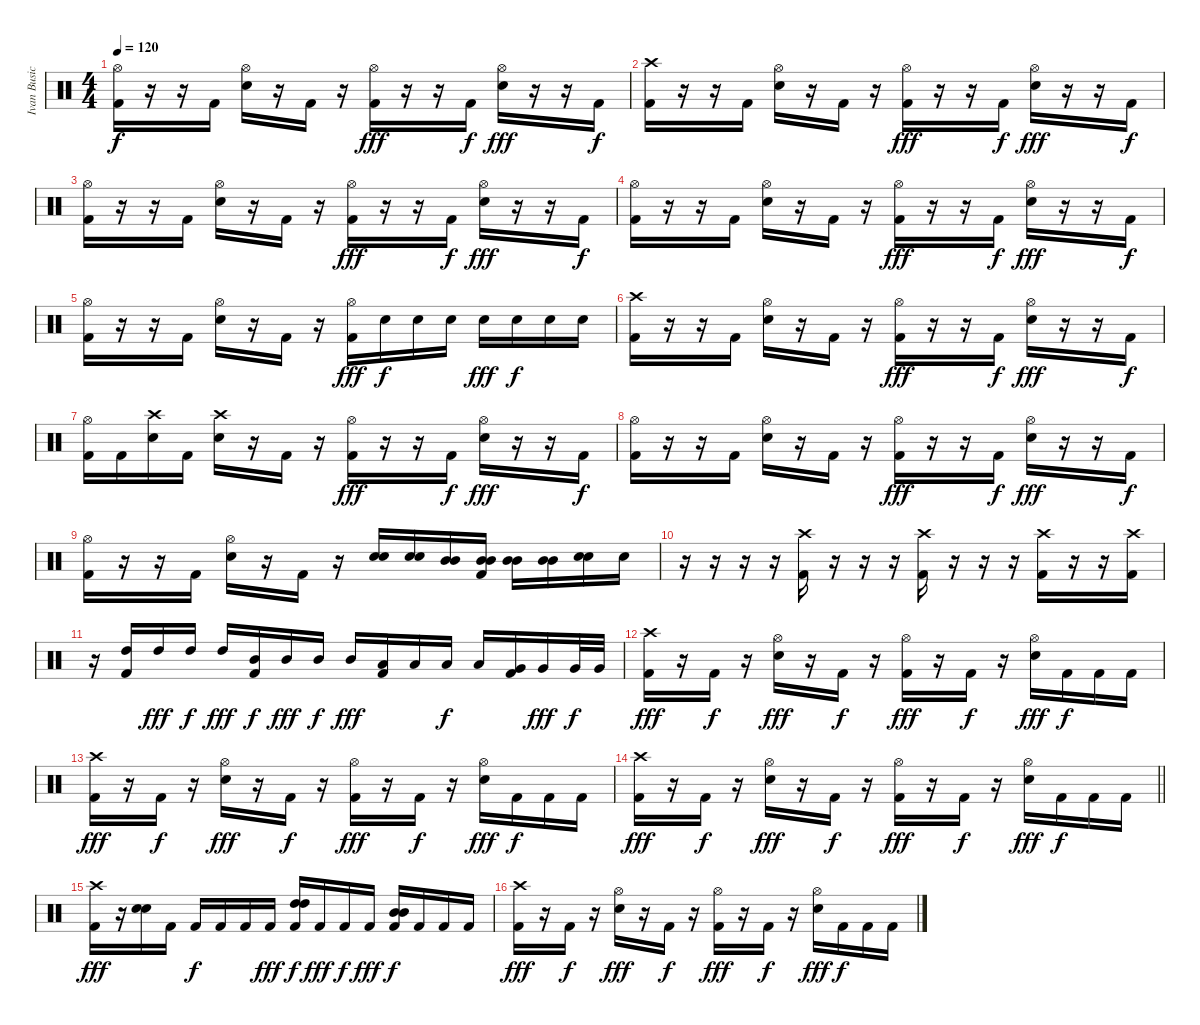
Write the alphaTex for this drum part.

\track ("Ivan Busic" "Ivan Busic") {instrument percussion}
\staff {score}
\articulation defaults
\ts (4 4)
\tempo 120
\clef neutral
\ks c
("Hi-Hat (open)" "Kick (hit) 2").16{dy f} r.16 r.16 "Kick (hit) 2".16 ("Hi-Hat (open)" "Electric Snare (hit)").16 r.16 "Kick (hit) 2".16 r.16 ("Hi-Hat (open)" "Kick (hit) 2").16{dy fff} r.16 r.16 "Kick (hit) 2".16{dy f} ("Hi-Hat (open)" "Electric Snare (hit)").16{dy fff} r.16 r.16 "Kick (hit) 2".16{dy f} |
("Crash high (hit)" "Kick (hit) 2").16 r.16 r.16 "Kick (hit) 2".16 ("Hi-Hat (open)" "Electric Snare (hit)").16 r.16 "Kick (hit) 2".16 r.16 ("Hi-Hat (open)" "Kick (hit) 2").16{dy fff} r.16 r.16 "Kick (hit) 2".16{dy f} ("Hi-Hat (open)" "Electric Snare (hit)").16{dy fff} r.16 r.16 "Kick (hit) 2".16{dy f} |
("Hi-Hat (open)" "Kick (hit) 2").16 r.16 r.16 "Kick (hit) 2".16 ("Hi-Hat (open)" "Electric Snare (hit)").16 r.16 "Kick (hit) 2".16 r.16 ("Hi-Hat (open)" "Kick (hit) 2").16{dy fff} r.16 r.16 "Kick (hit) 2".16{dy f} ("Hi-Hat (open)" "Electric Snare (hit)").16{dy fff} r.16 r.16 "Kick (hit) 2".16{dy f} |
("Hi-Hat (open)" "Kick (hit) 2").16 r.16 r.16 "Kick (hit) 2".16 ("Hi-Hat (open)" "Electric Snare (hit)").16 r.16 "Kick (hit) 2".16 r.16 ("Hi-Hat (open)" "Kick (hit) 2").16{dy fff} r.16 r.16 "Kick (hit) 2".16{dy f} ("Hi-Hat (open)" "Electric Snare (hit)").16{dy fff} r.16 r.16 "Kick (hit) 2".16{dy f} |
("Hi-Hat (open)" "Kick (hit) 2").16 r.16 r.16 "Kick (hit) 2".16 ("Hi-Hat (open)" "Electric Snare (hit)").16 r.16 "Kick (hit) 2".16 r.16 ("Hi-Hat (open)" "Kick (hit) 2").16{dy fff} "Electric Snare (hit)".16{dy f} "Electric Snare (hit)".16 "Electric Snare (hit)".16 "Electric Snare (hit)".16{dy fff} "Electric Snare (hit)".16{dy f} "Electric Snare (hit)".16 "Electric Snare (hit)".16 |
("Crash high (hit)" "Kick (hit) 2").16 r.16 r.16 "Kick (hit) 2".16 ("Hi-Hat (open)" "Electric Snare (hit)").16 r.16 "Kick (hit) 2".16 r.16 ("Hi-Hat (open)" "Kick (hit) 2").16{dy fff} r.16 r.16 "Kick (hit) 2".16{dy f} ("Hi-Hat (open)" "Electric Snare (hit)").16{dy fff} r.16 r.16 "Kick (hit) 2".16{dy f} |
("Hi-Hat (open)" "Kick (hit) 2").16 "Kick (hit) 2".16 ("Crash high (hit)" "Electric Snare (hit)").16 "Kick (hit) 2".16 ("Crash high (hit)" "Electric Snare (hit)").16 r.16 "Kick (hit) 2".16 r.16 ("Hi-Hat (open)" "Kick (hit) 2").16{dy fff} r.16 r.16 "Kick (hit) 2".16{dy f} ("Hi-Hat (open)" "Electric Snare (hit)").16{dy fff} r.16 r.16 "Kick (hit) 2".16{dy f} |
("Hi-Hat (open)" "Kick (hit) 2").16 r.16 r.16 "Kick (hit) 2".16 ("Hi-Hat (open)" "Electric Snare (hit)").16 r.16 "Kick (hit) 2".16 r.16 ("Hi-Hat (open)" "Kick (hit) 2").16{dy fff} r.16 r.16 "Kick (hit) 2".16{dy f} ("Hi-Hat (open)" "Electric Snare (hit)").16{dy fff} r.16 r.16 "Kick (hit) 2".16{dy f} |
("Hi-Hat (open)" "Kick (hit) 2").16 r.16 r.16 "Kick (hit) 2".16 ("Hi-Hat (open)" "Electric Snare (hit)").16 r.16 "Kick (hit) 2".16 r.16 ("Electric Snare (hit)" "Electric Snare (hit)").16 ("Electric Snare (hit)" "Electric Snare (hit)").16 ("Mid Tom (hit)" "Mid Tom (hit)").16 ("Mid Tom (hit)" "Mid Tom (hit)" "Kick (hit) 2").16 ("Mid Tom (hit)" "Mid Tom (hit)").16 ("Mid Tom (hit)" "Mid Tom (hit)").16 ("Electric Snare (hit)" "Electric Snare (hit)").16 "Snare (hit)".16 |
r.16 r.16 r.16 r.16 ("Crash high (hit)" "Kick (hit) 2").16 r.16 r.16 r.16 ("Crash high (hit)" "Kick (hit) 2").16 r.16 r.16 r.16 ("Crash high (hit)" "Kick (hit) 2").16 r.16 r.16 ("Crash high (hit)" "Kick (hit) 2").16 |
r.16 ("High Tom (hit)" "Kick (hit) 2").16 "High Tom (hit)".16{dy fff} "High Tom (hit)".16{dy f} "High Tom (hit)".16{dy fff} ("Mid Tom (hit)" "Kick (hit) 2").16{dy f} "Mid Tom (hit)".16{dy fff} "Mid Tom (hit)".16{dy f} "Mid Tom (hit)".16{dy fff} ("Low Tom (hit)" "Kick (hit) 2").16 "Low Tom (hit)".16 "Low Tom (hit)".16{dy f} "Low Tom (hit)".16 ("Very Low Tom (hit)" "Kick (hit) 2").16 "Very Low Tom (hit)".16{dy fff} "Very Low Tom (hit)".32{dy f} "Very Low Tom (hit)".32 |
("Crash high (hit)" "Kick (hit) 2").16{dy fff} r.16 "Kick (hit) 2".16{dy f} r.16 ("Hi-Hat (open)" "Electric Snare (hit)").16{dy fff} r.16 "Kick (hit) 2".16{dy f} r.16 ("Hi-Hat (open)" "Kick (hit) 2").16{dy fff} r.16 "Kick (hit) 2".16{dy f} r.16 ("Hi-Hat (open)" "Electric Snare (hit)").16{dy fff} "Kick (hit) 2".16{dy f} "Kick (hit) 2".16 "Kick (hit) 2".16 |
("Crash high (hit)" "Kick (hit) 2").16{dy fff} r.16 "Kick (hit) 2".16{dy f} r.16 ("Hi-Hat (open)" "Electric Snare (hit)").16{dy fff} r.16 "Kick (hit) 2".16{dy f} r.16 ("Hi-Hat (open)" "Kick (hit) 2").16{dy fff} r.16 "Kick (hit) 2".16{dy f} r.16 ("Hi-Hat (open)" "Electric Snare (hit)").16{dy fff} "Kick (hit) 2".16{dy f} "Kick (hit) 2".16 "Kick (hit) 2".16 |
\barLineRight lightlight
("Crash high (hit)" "Kick (hit) 2").16{dy fff} r.16 "Kick (hit) 2".16{dy f} r.16 ("Hi-Hat (open)" "Electric Snare (hit)").16{dy fff} r.16 "Kick (hit) 2".16{dy f} r.16 ("Hi-Hat (open)" "Kick (hit) 2").16{dy fff} r.16 "Kick (hit) 2".16{dy f} r.16 ("Hi-Hat (open)" "Electric Snare (hit)").16{dy fff} "Kick (hit) 2".16{dy f} "Kick (hit) 2".16 "Kick (hit) 2".16 |
("Crash high (hit)" "Kick (hit) 2").16{dy fff} r.16 ("Electric Snare (hit)" "Electric Snare (hit)").16 "Kick (hit) 2".16 "Kick (hit) 2".16{dy f} "Kick (hit) 2".16 "Kick (hit) 2".16 "Kick (hit) 2".16{dy fff} ("High Tom (hit)" "High Tom (hit)" "Kick (hit) 2").16{dy f} "Kick (hit) 2".16{dy fff} "Kick (hit) 2".16{dy f} "Kick (hit) 2".16{dy fff} ("Mid Tom (hit)" "Mid Tom (hit)" "Kick (hit) 2").16{dy f} "Kick (hit) 2".16 "Kick (hit) 2".16 "Kick (hit) 2".16 |
("Crash high (hit)" "Kick (hit) 2").16{dy fff} r.16 "Kick (hit) 2".16{dy f} r.16 ("Hi-Hat (open)" "Electric Snare (hit)").16{dy fff} r.16 "Kick (hit) 2".16{dy f} r.16 ("Hi-Hat (open)" "Kick (hit) 2").16{dy fff} r.16 "Kick (hit) 2".16{dy f} r.16 ("Hi-Hat (open)" "Electric Snare (hit)").16{dy fff} "Kick (hit) 2".16{dy f} "Kick (hit) 2".16 "Kick (hit) 2".16
